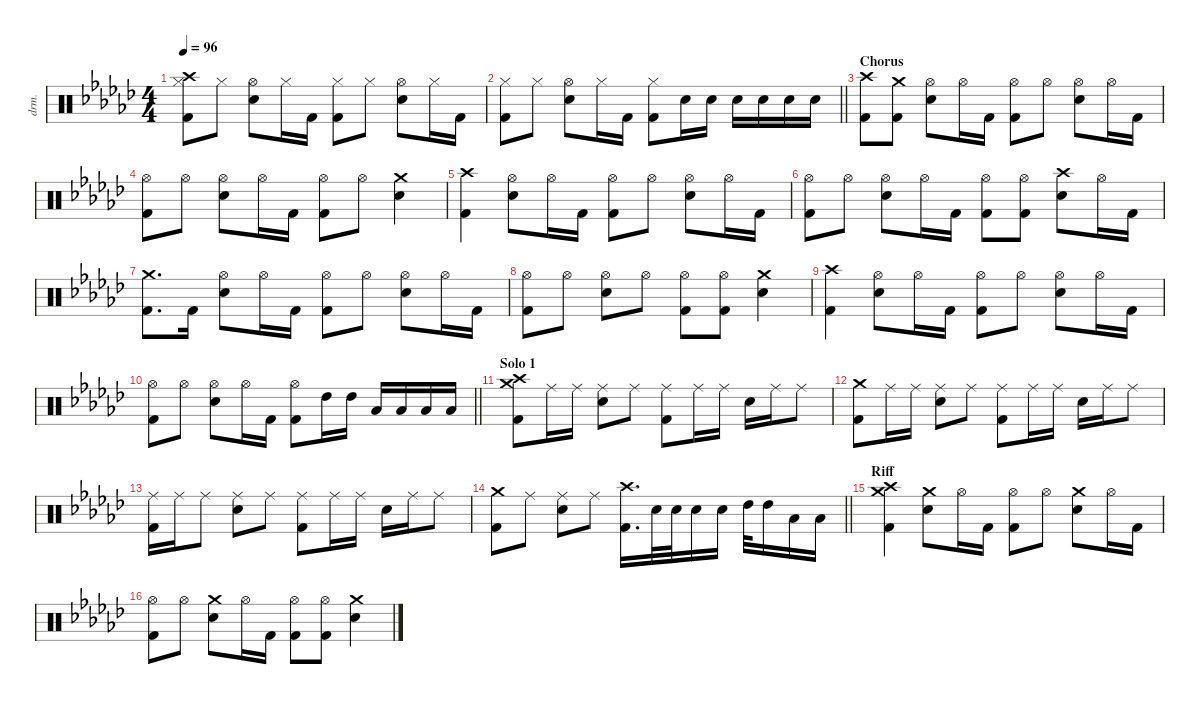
\defaultSystemsLayout 4
\hideDynamics
\bracketExtendMode nobrackets
\otherSystemsTrackNameOrientation horizontal
\track ("Drums (Alex Van Halen)" "drm.") {instrument percussion}
\staff {score}
\articulation defaults
\ts (4 4)
\tempo 96
\clef neutral
\ks ebminor
("Crash high (hit)"{acc forcenatural} "Kick (hit) 2"{acc forcenatural} "Hi-Hat (closed)"{acc forcenatural}).8{dy fff beam Down} "Hi-Hat (closed)"{acc forcenatural}.8{dy pp beam Down} ("Hi-Hat (open)"{acc forcenatural} "Snare (hit) 2"{acc forcenatural}).8{dy fff beam Down} "Hi-Hat (closed)"{acc forcenatural}.16{dy f beam Down} "Kick (hit) 2"{acc forcenatural}.16{dy fff beam Down} ("Hi-Hat (closed)"{acc forcenatural} "Kick (hit) 2"{acc forcenatural}).8{beam Down} "Hi-Hat (closed)"{acc forcenatural}.8{dy pp beam Down} ("Snare (hit) 2"{acc forcenatural} "Hi-Hat (open)"{acc forcenatural}).8{dy fff beam Down} "Hi-Hat (closed)"{acc forcenatural}.16{dy mf beam Down} "Kick (hit) 2"{acc forcenatural}.16{dy fff beam Down} |
\barLineRight lightlight
("Hi-Hat (closed)"{acc forcenatural} "Kick (hit) 2"{acc forcenatural}).8{dy mp beam Down} "Hi-Hat (closed)"{acc forcenatural}.8{dy mf beam Down} ("Hi-Hat (open)"{acc forcenatural} "Snare (hit) 2"{acc forcenatural}).8{dy fff beam Down} "Hi-Hat (closed)"{acc forcenatural}.16{beam Down} "Kick (hit) 2"{acc forcenatural}.16{dy f beam Down} ("Hi-Hat (closed)"{acc forcenatural} "Kick (hit) 2"{acc forcenatural}).8{dy fff beam Down} "Snare (hit) 2"{acc forcenatural}.16{dy f beam Down} "Snare (hit) 2"{acc forcenatural}.16{beam Down} "Snare (hit) 2"{acc forcenatural}.16{beam Down} "Snare (hit) 2"{acc forcenatural}.16{beam Down} "Snare (hit) 2"{acc forcenatural}.16{beam Down} "Snare (hit) 2"{acc forcenatural}.16{beam Down} |
\section ("" "Chorus")
("Kick (hit) 2"{acc forcenatural} "Crash high (hit)"{acc forcenatural}).8{dy fff beam Down} ("Kick (hit) 2"{acc forcenatural} "Crash medium (hit)"{acc forcenatural}).8{beam Down} ("Snare (hit) 2"{acc forcenatural} "Hi-Hat (open)"{acc forcenatural}).8{beam Down} "Hi-Hat (open)"{acc forcenatural}.16{dy ppp beam Down} "Kick (hit) 2"{acc forcenatural}.16{dy fff beam Down} ("Hi-Hat (open)"{acc forcenatural} "Kick (hit) 2"{acc forcenatural}).8{dy f beam Down} "Hi-Hat (open)"{acc forcenatural}.8{dy mf beam Down} ("Snare (hit) 2"{acc forcenatural} "Hi-Hat (open)"{acc forcenatural}).8{dy fff beam Down} "Hi-Hat (open)"{acc forcenatural}.16{dy mf beam Down} "Kick (hit) 2"{acc forcenatural}.16{dy fff beam Down} |
("Kick (hit) 2"{acc forcenatural} "Hi-Hat (open)"{acc forcenatural}).8{beam Down} "Hi-Hat (open)"{acc forcenatural}.8{dy p beam Down} ("Hi-Hat (open)"{acc forcenatural} "Snare (hit) 2"{acc forcenatural}).8{dy fff beam Down} "Hi-Hat (open)"{acc forcenatural}.16{dy p beam Down} "Kick (hit) 2"{acc forcenatural}.16{dy fff beam Down} ("Kick (hit) 2"{acc forcenatural} "Hi-Hat (open)"{acc forcenatural}).8{beam Down} "Hi-Hat (open)"{acc forcenatural}.8{dy p beam Down} ("Snare (hit) 2"{acc forcenatural} "Crash medium (hit)"{acc forcenatural}).4{dy fff beam Down} |
("Crash high (hit)"{acc forcenatural} "Kick (hit) 2"{acc forcenatural}).4{beam Down} ("Hi-Hat (open)"{acc forcenatural} "Snare (hit) 2"{acc forcenatural}).8{beam Down} "Hi-Hat (open)"{acc forcenatural}.16{beam Down} "Kick (hit) 2"{acc forcenatural}.16{beam Down} ("Hi-Hat (open)"{acc forcenatural} "Kick (hit) 2"{acc forcenatural}).8{beam Down} "Hi-Hat (open)"{acc forcenatural}.8{beam Down} ("Hi-Hat (open)"{acc forcenatural} "Snare (hit) 2"{acc forcenatural}).8{beam Down} "Hi-Hat (open)"{acc forcenatural}.16{beam Down} "Kick (hit) 2"{acc forcenatural}.16{beam Down} |
("Hi-Hat (open)"{acc forcenatural} "Kick (hit) 2"{acc forcenatural}).8{beam Down} "Hi-Hat (open)"{acc forcenatural}.8{dy pp beam Down} ("Hi-Hat (open)"{acc forcenatural} "Snare (hit) 2"{acc forcenatural}).8{dy fff beam Down} "Hi-Hat (open)"{acc forcenatural}.16{beam Down} "Kick (hit) 2"{acc forcenatural}.16{beam Down} ("Hi-Hat (open)"{acc forcenatural} "Kick (hit) 2"{acc forcenatural}).8{beam Down} ("Hi-Hat (open)"{acc forcenatural} "Kick (hit) 2"{acc forcenatural}).8{beam Down} ("Snare (hit) 2"{acc forcenatural} "Crash high (hit)"{acc forcenatural}).8{beam Down} "Hi-Hat (open)"{acc forcenatural}.16{dy mp beam Down} "Kick (hit) 2"{acc forcenatural}.16{dy fff beam Down} |
("Kick (hit) 2"{acc forcenatural} "Crash medium (hit)"{acc forcenatural}).8{d beam Down} "Kick (hit) 2"{acc forcenatural}.16{beam Down} ("Hi-Hat (open)"{acc forcenatural} "Snare (hit) 2"{acc forcenatural}).8{beam Down} "Hi-Hat (open)"{acc forcenatural}.16{dy mp beam Down} "Kick (hit) 2"{acc forcenatural}.16{dy fff beam Down} ("Hi-Hat (open)"{acc forcenatural} "Kick (hit) 2"{acc forcenatural}).8{beam Down} "Hi-Hat (open)"{acc forcenatural}.8{dy mp beam Down} ("Hi-Hat (open)"{acc forcenatural} "Snare (hit) 2"{acc forcenatural}).8{dy fff beam Down} "Hi-Hat (open)"{acc forcenatural}.16{dy mf beam Down} "Kick (hit) 2"{acc forcenatural}.16{dy fff beam Down} |
("Hi-Hat (open)"{acc forcenatural} "Kick (hit) 2"{acc forcenatural}).8{dy mf beam Down} "Hi-Hat (open)"{acc forcenatural}.8{dy ppp beam Down} ("Hi-Hat (open)"{acc forcenatural} "Snare (hit) 2"{acc forcenatural}).8{dy fff beam Down} "Hi-Hat (open)"{acc forcenatural}.8{dy mp beam Down} ("Hi-Hat (open)"{acc forcenatural} "Kick (hit) 2"{acc forcenatural}).8{dy ff beam Down} ("Hi-Hat (open)"{acc forcenatural} "Kick (hit) 2"{acc forcenatural}).8{dy fff beam Down} ("Crash medium (hit)"{acc forcenatural} "Snare (hit) 2"{acc forcenatural}).4{beam Down} |
("Crash high (hit)"{acc forcenatural} "Kick (hit) 2"{acc forcenatural}).4{beam Down} ("Hi-Hat (open)"{acc forcenatural} "Snare (hit) 2"{acc forcenatural}).8{beam Down} "Hi-Hat (open)"{acc forcenatural}.16{dy p beam Down} "Kick (hit) 2"{acc forcenatural}.16{dy f beam Down} ("Hi-Hat (open)"{acc forcenatural} "Kick (hit) 2"{acc forcenatural}).8{dy fff beam Down} "Hi-Hat (open)"{acc forcenatural}.8{dy p beam Down} ("Hi-Hat (open)"{acc forcenatural} "Snare (hit) 2"{acc forcenatural}).8{dy fff beam Down} "Hi-Hat (open)"{acc forcenatural}.16{dy mf beam Down} "Kick (hit) 2"{acc forcenatural}.16{dy f beam Down} |
\barLineRight lightlight
("Hi-Hat (open)"{acc forcenatural} "Kick (hit) 2"{acc forcenatural}).8{dy fff beam Down} "Hi-Hat (open)"{acc forcenatural}.8{dy p beam Down} ("Hi-Hat (open)"{acc forcenatural} "Snare (hit) 2"{acc forcenatural}).8{dy fff beam Down} "Hi-Hat (open)"{acc forcenatural}.16{dy pp beam Down} "Kick (hit) 2"{acc forcenatural}.16{dy f beam Down} ("Hi-Hat (open)"{acc forcenatural} "Kick (hit) 2"{acc forcenatural}).8{dy fff beam Down} "High Tom (hit)"{acc forcenatural}.16{dy f beam Down} "High Tom (hit)"{acc forcenatural}.16{beam Down} "Low Tom (hit)"{acc forcenatural}.16{beam Up} "Low Tom (hit)"{acc forcenatural}.16{beam Up} "Low Floor Tom (hit)"{acc forcenatural}.16{beam Up} "Low Floor Tom (hit)"{acc forcenatural}.16{beam Up} |
\section ("" "Solo 1")
("Crash medium (hit)"{acc forcenatural} "Crash high (hit)"{acc forcenatural} "Kick (hit) 2"{acc forcenatural}).8{dy fff beam Down} "Ride (middle)"{acc forcenatural}.16{dy ff beam Down} "Ride (middle)"{acc forcenatural}.16{dy fff beam Down} ("Ride (middle)"{acc forcenatural} "Snare (hit) 2"{acc forcenatural}).8{beam Down} "Ride (middle)"{acc forcenatural}.8{dy ff beam Down} ("Ride (middle)"{acc forcenatural} "Kick (hit) 2"{acc forcenatural}).8{dy fff beam Down} "Ride (middle)"{acc forcenatural}.16{dy f beam Down} "Ride (middle)"{acc forcenatural}.16{dy ff beam Down} "Snare (hit) 2"{acc forcenatural}.16{dy f beam Down} "Ride (middle)"{acc forcenatural}.16{dy fff beam Down} "Ride (middle)"{acc forcenatural}.8{beam Down} |
("Crash medium (hit)"{acc forcenatural} "Kick (hit) 2"{acc forcenatural}).8{beam Down} "Ride (middle)"{acc forcenatural}.16{dy ff beam Down} "Ride (middle)"{acc forcenatural}.16{dy fff beam Down} ("Ride (middle)"{acc forcenatural} "Snare (hit) 2"{acc forcenatural}).8{beam Down} "Ride (middle)"{acc forcenatural}.8{beam Down} ("Ride (middle)"{acc forcenatural} "Kick (hit) 2"{acc forcenatural}).8{beam Down} "Ride (middle)"{acc forcenatural}.16{dy ff beam Down} "Ride (middle)"{acc forcenatural}.16{beam Down} "Snare (hit) 2"{acc forcenatural}.16{dy f beam Down} "Ride (middle)"{acc forcenatural}.16{dy fff beam Down} "Ride (middle)"{acc forcenatural}.8{beam Down} |
("Ride (middle)"{acc forcenatural} "Kick (hit) 2"{acc forcenatural}).16{beam Down} "Ride (middle)"{acc forcenatural}.16{beam Down} "Ride (middle)"{acc forcenatural}.8{dy f beam Down} ("Ride (middle)"{acc forcenatural} "Snare (hit) 2"{acc forcenatural}).8{dy fff beam Down} "Ride (middle)"{acc forcenatural}.8{dy ff beam Down} ("Ride (middle)"{acc forcenatural} "Kick (hit) 2"{acc forcenatural}).8{dy fff beam Down} "Ride (middle)"{acc forcenatural}.16{dy ff beam Down} "Ride (middle)"{acc forcenatural}.16{beam Down} "Snare (hit) 2"{acc forcenatural}.16{dy f beam Down} "Ride (middle)"{acc forcenatural}.16{dy fff beam Down} "Ride (middle)"{acc forcenatural}.8{beam Down} |
\barLineRight lightlight
("Crash medium (hit)"{acc forcenatural} "Kick (hit) 2"{acc forcenatural}).8{beam Down} "Ride (middle)"{acc forcenatural}.8{dy ff beam Down} ("Ride (middle)"{acc forcenatural} "Snare (hit) 2"{acc forcenatural}).8{dy fff beam Down} "Ride (middle)"{acc forcenatural}.8{dy ff beam Down} ("Crash high (hit)"{acc forcenatural} "Kick (hit) 2"{acc forcenatural}).16{d dy fff beam Down} "Snare (hit) 2"{acc forcenatural}.32{dy f beam Down} "Snare (hit) 2"{acc forcenatural}.32{beam Down} "Snare (hit) 2"{acc forcenatural}.16{beam Down} "Snare (hit) 2"{acc forcenatural}.16{beam Down} "High Tom (hit)"{acc forcenatural}.32{beam Down} "High Tom (hit)"{acc forcenatural}.16{beam Down} "Low Tom (hit)"{acc forcenatural}.16{beam Down} "Low Tom (hit)"{acc forcenatural}.16{beam Down} |
\section ("" "Riff")
("Crash high (hit)"{acc forcenatural} "Crash medium (hit)"{acc forcenatural} "Kick (hit) 2"{acc forcenatural}).4{dy fff beam Down} ("Snare (hit) 2"{acc forcenatural} "Crash medium (hit)"{acc forcenatural}).8{beam Down} "Hi-Hat (open)"{acc forcenatural}.16{dy ff beam Down} "Kick (hit) 2"{acc forcenatural}.16{dy fff beam Down} ("Hi-Hat (open)"{acc forcenatural} "Kick (hit) 2"{acc forcenatural}).8{beam Down} "Hi-Hat (open)"{acc forcenatural}.8{dy mf beam Down} ("Crash medium (hit)"{acc forcenatural} "Snare (hit) 2"{acc forcenatural}).8{dy ff beam Down} "Hi-Hat (open)"{acc forcenatural}.16{dy ppp beam Down} "Kick (hit) 2"{acc forcenatural}.16{dy fff beam Down} |
("Kick (hit) 2"{acc forcenatural} "Hi-Hat (open)"{acc forcenatural}).8{beam Down} "Hi-Hat (open)"{acc forcenatural}.8{dy ff beam Down} ("Snare (hit) 2"{acc forcenatural} "Crash medium (hit)"{acc forcenatural}).8{dy fff beam Down} "Hi-Hat (open)"{acc forcenatural}.16{dy mf beam Down} "Kick (hit) 2"{acc forcenatural}.16{dy fff beam Down} ("Kick (hit) 2"{acc forcenatural} "Hi-Hat (open)"{acc forcenatural}).8{beam Down} ("Hi-Hat (open)"{acc forcenatural} "Kick (hit) 2"{acc forcenatural}).8{beam Down} ("Snare (hit) 2"{acc forcenatural} "Crash medium (hit)"{acc forcenatural}).4{beam Down}
